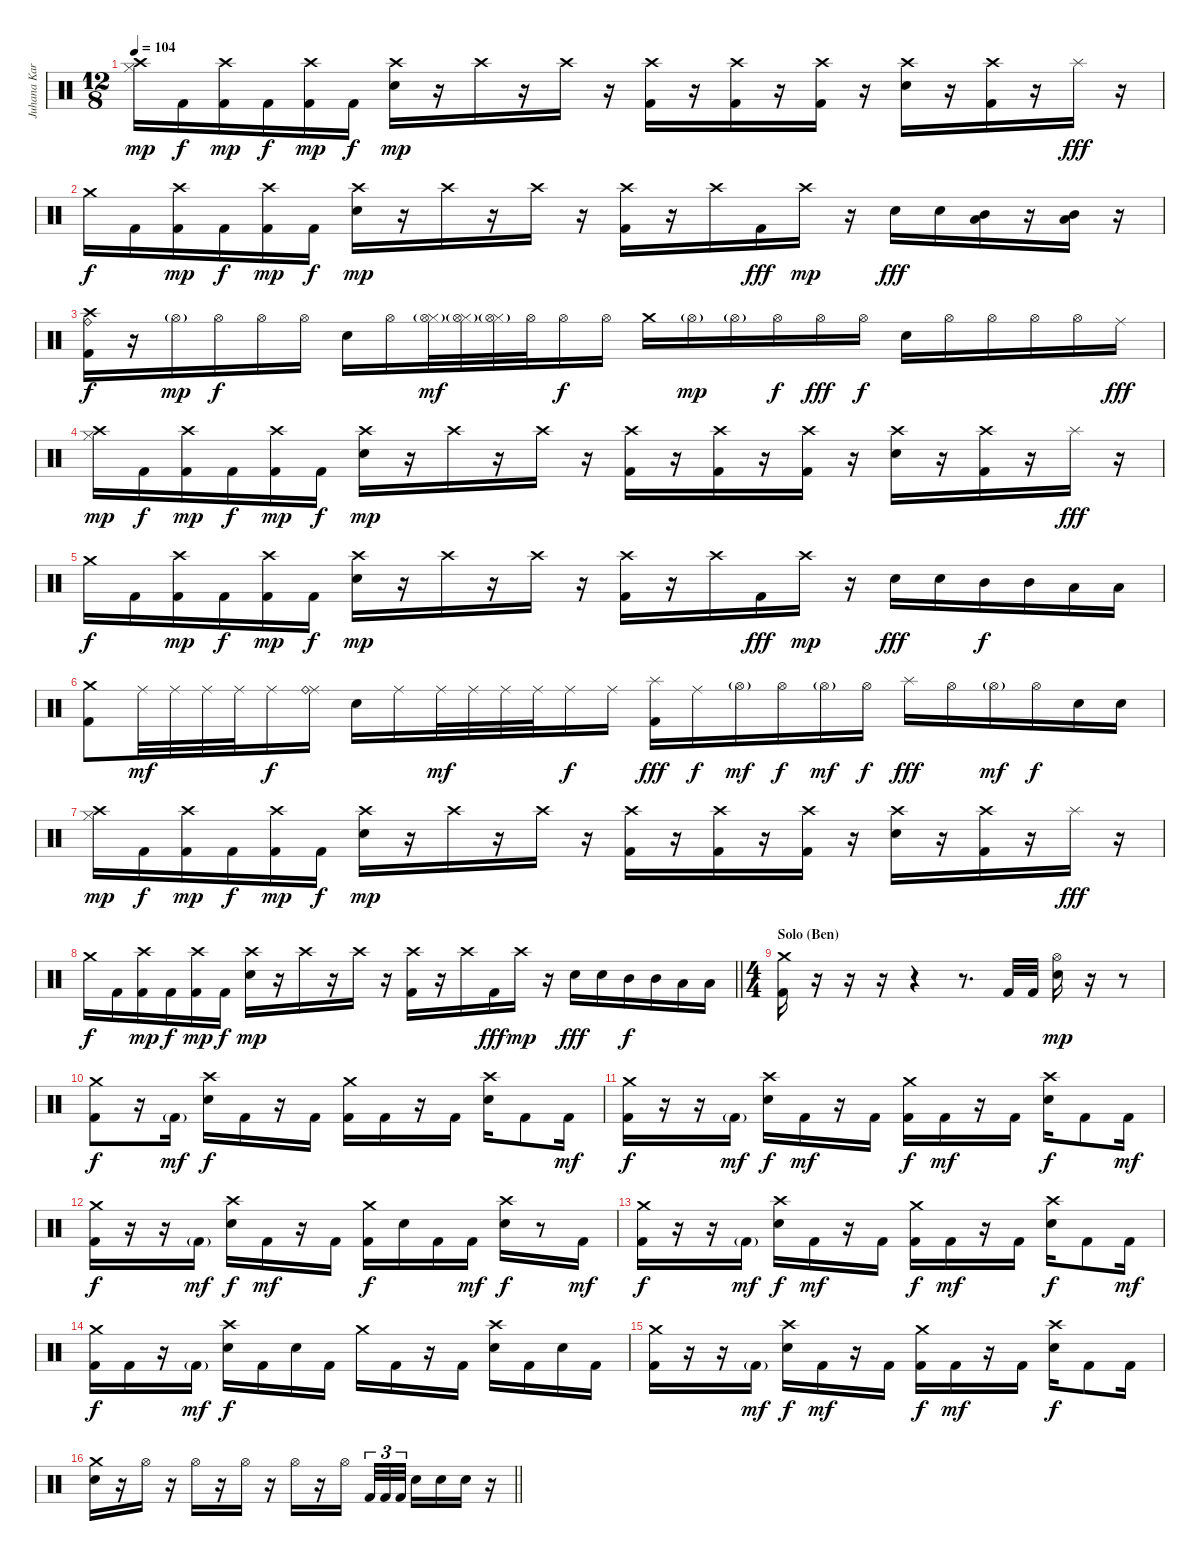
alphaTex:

\track ("Juhana Karlsson" "Juhana Kar") {instrument percussion}
\staff {score}
\articulation defaults
\ts (12 8)
\tempo 104
\clef neutral
\ks c
("Crash high (hit)" "Hi-Hat (closed)").16{dy mp} "Kick (hit) 2".16{dy f} ("Crash high (hit)" "Kick (hit) 2").16{dy mp} "Kick (hit) 2".16{dy f} ("Crash high (hit)" "Kick (hit) 2").16{dy mp} "Kick (hit) 2".16{dy f} ("Crash high (hit)" "Electric Snare (hit)").16{dy mp} r.16 "Crash high (hit)".16 r.16 "Crash high (hit)".16 r.16 ("Crash high (hit)" "Kick (hit) 2").16 r.16 ("Crash high (hit)" "Kick (hit) 2").16 r.16 ("Crash high (hit)" "Kick (hit) 2").16 r.16 ("Crash high (hit)" "Electric Snare (hit)").16 r.16 ("Crash high (hit)" "Kick (hit) 2").16 r.16 "Splash (hit)".16{dy fff} r.16 |
"Crash medium (hit)".16{dy f} "Kick (hit) 2".16 ("Crash high (hit)" "Kick (hit) 2").16{dy mp} "Kick (hit) 2".16{dy f} ("Crash high (hit)" "Kick (hit) 2").16{dy mp} "Kick (hit) 2".16{dy f} ("Crash high (hit)" "Electric Snare (hit)").16{dy mp} r.16 "Crash high (hit)".16 r.16 "Crash high (hit)".16 r.16 ("Crash high (hit)" "Kick (hit) 2").16 r.16 "Crash high (hit)".16 "Kick (hit) 2".16{dy fff} "Crash high (hit)".16{dy mp} r.16 "Electric Snare (hit)".16{dy fff} "Electric Snare (hit)".16 ("Mid Tom (hit)" "Low Tom (hit)").16 r.16 ("Mid Tom (hit)" "Low Tom (hit)").16 r.16 |
("Crash high (hit)" "Ride (bell)" "Kick (hit) 2").16{dy f} r.16 "Hi-Hat (open)"{g}.16{dy mp} "Hi-Hat (open)".16{dy f} "Hi-Hat (open)".16 "Hi-Hat (open)".16 "Electric Snare (hit)".16 "Hi-Hat (open)".16 ("Hi-Hat (closed)" "Hi-Hat (open)"{g}).32{dy mf} ("Hi-Hat (closed)" "Hi-Hat (open)"{g}).32 ("Hi-Hat (closed)" "Hi-Hat (open)"{g}).32 "Hi-Hat (open)".32 "Hi-Hat (open)".16{dy f} "Hi-Hat (open)".16 "Crash medium (hit)".16 "Hi-Hat (open)"{g}.16{dy mp} "Hi-Hat (open)"{g}.16 "Hi-Hat (open)".16{dy f} "Hi-Hat (open)".16{dy fff} "Hi-Hat (open)".16{dy f} "Electric Snare (hit)".16 "Hi-Hat (open)".16 "Hi-Hat (open)".16 "Hi-Hat (open)".16 "Hi-Hat (open)".16 "Ride (middle)".16{dy fff} |
("Crash high (hit)" "Hi-Hat (closed)").16{dy mp} "Kick (hit) 2".16{dy f} ("Crash high (hit)" "Kick (hit) 2").16{dy mp} "Kick (hit) 2".16{dy f} ("Crash high (hit)" "Kick (hit) 2").16{dy mp} "Kick (hit) 2".16{dy f} ("Crash high (hit)" "Electric Snare (hit)").16{dy mp} r.16 "Crash high (hit)".16 r.16 "Crash high (hit)".16 r.16 ("Crash high (hit)" "Kick (hit) 2").16 r.16 ("Crash high (hit)" "Kick (hit) 2").16 r.16 ("Crash high (hit)" "Kick (hit) 2").16 r.16 ("Crash high (hit)" "Electric Snare (hit)").16 r.16 ("Crash high (hit)" "Kick (hit) 2").16 r.16 "Splash (hit)".16{dy fff} r.16 |
"Crash medium (hit)".16{dy f} "Kick (hit) 2".16 ("Crash high (hit)" "Kick (hit) 2").16{dy mp} "Kick (hit) 2".16{dy f} ("Crash high (hit)" "Kick (hit) 2").16{dy mp} "Kick (hit) 2".16{dy f} ("Crash high (hit)" "Electric Snare (hit)").16{dy mp} r.16 "Crash high (hit)".16 r.16 "Crash high (hit)".16 r.16 ("Crash high (hit)" "Kick (hit) 2").16 r.16 "Crash high (hit)".16 "Kick (hit) 2".16{dy fff} "Crash high (hit)".16{dy mp} r.16 "Electric Snare (hit)".16{dy fff} "Electric Snare (hit)".16 "Mid Tom (hit)".16{dy f} "Mid Tom (hit)".16 "Low Tom (hit)".16 "Low Tom (hit)".16 |
("Crash medium (hit)" "Kick (hit) 2").8 "Ride (middle)".32{dy mf} "Ride (middle)".32 "Ride (middle)".32 "Ride (middle)".32 "Ride (middle)".16{dy f} ("Ride (middle)" "Ride (bell)").16 "Electric Snare (hit)".16 "Ride (middle)".16 "Ride (middle)".32{dy mf} "Ride (middle)".32 "Ride (middle)".32 "Ride (middle)".32 "Ride (middle)".16{dy f} "Ride (middle)".16 ("Splash (hit)" "Kick (hit) 2").16{dy fff} "Ride (middle)".16{dy f} "Hi-Hat (open)"{g}.16{dy mf} "Hi-Hat (open)".16{dy f} "Hi-Hat (open)"{g}.16{dy mf} "Hi-Hat (open)".16{dy f} "Splash (hit)".16{dy fff} "Hi-Hat (open)".16 "Hi-Hat (open)"{g}.16{dy mf} "Hi-Hat (open)".16{dy f} "Electric Snare (hit)".16 "Electric Snare (hit)".16 |
("Crash high (hit)" "Hi-Hat (closed)").16{dy mp} "Kick (hit) 2".16{dy f} ("Crash high (hit)" "Kick (hit) 2").16{dy mp} "Kick (hit) 2".16{dy f} ("Crash high (hit)" "Kick (hit) 2").16{dy mp} "Kick (hit) 2".16{dy f} ("Crash high (hit)" "Electric Snare (hit)").16{dy mp} r.16 "Crash high (hit)".16 r.16 "Crash high (hit)".16 r.16 ("Crash high (hit)" "Kick (hit) 2").16 r.16 ("Crash high (hit)" "Kick (hit) 2").16 r.16 ("Crash high (hit)" "Kick (hit) 2").16 r.16 ("Crash high (hit)" "Electric Snare (hit)").16 r.16 ("Crash high (hit)" "Kick (hit) 2").16 r.16 "Splash (hit)".16{dy fff} r.16 |
\barLineRight lightlight "Crash medium (hit)".16{dy f} "Kick (hit) 2".16
("Crash high (hit)" "Kick (hit) 2").16{dy mp} "Kick (hit) 2".16{dy f} ("Crash high (hit)" "Kick (hit) 2").16{dy mp} "Kick (hit) 2".16{dy f} ("Crash high (hit)" "Electric Snare (hit)").16{dy mp} r.16 "Crash high (hit)".16 r.16 "Crash high (hit)".16 r.16 ("Crash high (hit)" "Kick (hit) 2").16 r.16 "Crash high (hit)".16 "Kick (hit) 2".16{dy fff} "Crash high (hit)".16{dy mp} r.16 "Electric Snare (hit)".16{dy fff} "Electric Snare (hit)".16 "Mid Tom (hit)".16{dy f} "Mid Tom (hit)".16 "Low Tom (hit)".16 "Low Tom (hit)".16 |
\ts (4 4)
\section ("" "Solo (Ben)")
("Crash medium (hit)" "Kick (hit) 2").16 r.16{volume 0} r.16 r.16 r.4 r.8{d} "Kick (hit) 2".32{volume 14} "Kick (hit) 2".32 ("Hi-Hat (open)" "Electric Snare (hit)").16{dy mp} r.16 r.8 |
("Crash medium (hit)" "Kick (hit) 2").8{dy f} r.16 "Kick (hit) 2"{g}.16{dy mf} ("Crash high (hit)" "Electric Snare (hit)").16{dy f} "Kick (hit) 2".16 r.16 "Kick (hit) 2".16 ("Crash medium (hit)" "Kick (hit) 2").16 "Kick (hit) 2".16 r.16 "Kick (hit) 2".16 ("Crash high (hit)" "Electric Snare (hit)").16 "Kick (hit) 2".8 "Kick (hit) 2".16{dy mf} |
("Crash medium (hit)" "Kick (hit) 2").16{dy f} r.16 r.16 "Kick (hit) 2"{g}.16{dy mf} ("Crash high (hit)" "Electric Snare (hit)").16{dy f} "Kick (hit) 2".16{dy mf} r.16 "Kick (hit) 2".16 ("Crash medium (hit)" "Kick (hit) 2").16{dy f} "Kick (hit) 2".16{dy mf} r.16 "Kick (hit) 2".16 ("Crash high (hit)" "Electric Snare (hit)").16{dy f} "Kick (hit) 2".8 "Kick (hit) 2".16{dy mf} |
("Crash medium (hit)" "Kick (hit) 2").16{dy f} r.16 r.16 "Kick (hit) 2"{g}.16{dy mf} ("Crash high (hit)" "Electric Snare (hit)").16{dy f} "Kick (hit) 2".16{dy mf} r.16 "Kick (hit) 2".16 ("Crash medium (hit)" "Kick (hit) 2").16{dy f} "Electric Snare (hit)".16 "Kick (hit) 2".16 "Kick (hit) 2".16{dy mf} ("Crash high (hit)" "Electric Snare (hit)").16{dy f} r.8 "Kick (hit) 2".16{dy mf} |
("Crash medium (hit)" "Kick (hit) 2").16{dy f} r.16 r.16 "Kick (hit) 2"{g}.16{dy mf} ("Crash high (hit)" "Electric Snare (hit)").16{dy f} "Kick (hit) 2".16{dy mf} r.16 "Kick (hit) 2".16 ("Crash medium (hit)" "Kick (hit) 2").16{dy f} "Kick (hit) 2".16{dy mf} r.16 "Kick (hit) 2".16 ("Crash high (hit)" "Electric Snare (hit)").16{dy f} "Kick (hit) 2".8 "Kick (hit) 2".16{dy mf} |
("Crash medium (hit)" "Kick (hit) 2").16{dy f} "Kick (hit) 2".16 r.16 "Kick (hit) 2"{g}.16{dy mf} ("Crash high (hit)" "Electric Snare (hit)").16{dy f} "Kick (hit) 2".16 "Electric Snare (hit)".16 "Kick (hit) 2".16 "Crash medium (hit)".16 "Kick (hit) 2".16 r.16 "Kick (hit) 2".16 ("Crash high (hit)" "Electric Snare (hit)").16 "Kick (hit) 2".16 "Electric Snare (hit)".16 "Kick (hit) 2".16 |
("Crash medium (hit)" "Kick (hit) 2").16 r.16 r.16 "Kick (hit) 2"{g}.16{dy mf} ("Crash high (hit)" "Electric Snare (hit)").16{dy f} "Kick (hit) 2".16{dy mf} r.16 "Kick (hit) 2".16 ("Crash medium (hit)" "Kick (hit) 2").16{dy f} "Kick (hit) 2".16{dy mf} r.16 "Kick (hit) 2".16 ("Crash high (hit)" "Electric Snare (hit)").16{dy f} "Kick (hit) 2".8 "Kick (hit) 2".16 |
\barLineRight lightlight
("Crash medium (hit)" "Electric Snare (hit)").16 r.16 "Hi-Hat (open)".16 r.16 "Hi-Hat (open)".16 r.16 "Hi-Hat (open)".16 r.16 "Hi-Hat (open)".16 r.16 "Hi-Hat (open)".16{beam splitsecondary} "Kick (hit) 2".32{tu (3 2)} "Kick (hit) 2".32{tu (3 2)} "Kick (hit) 2".32{tu (3 2)} "Electric Snare (hit)".16 "Electric Snare (hit)".16 "Electric Snare (hit)".16 r.16
